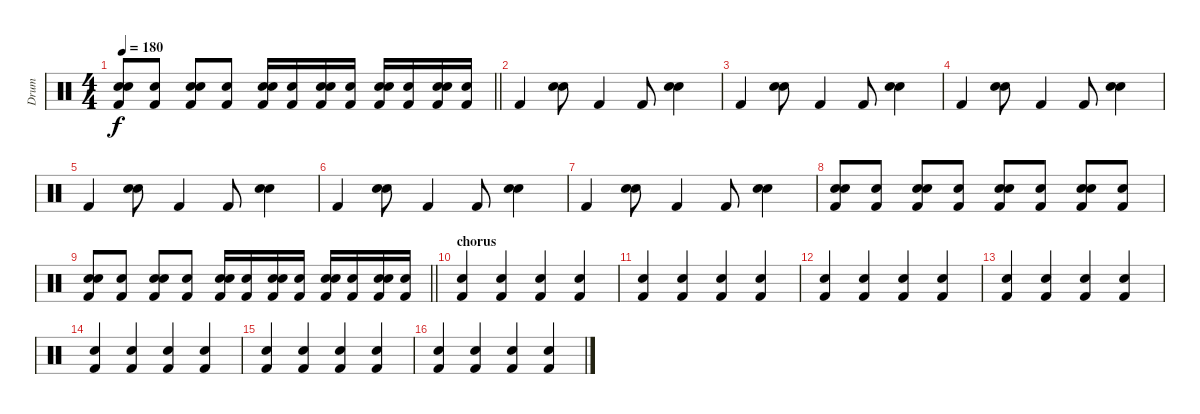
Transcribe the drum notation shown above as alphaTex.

\track ("Drum" "Drum") {instrument percussion}
\staff {score}
\articulation defaults
\ts (4 4)
\tempo 180
\clef neutral
\barLineRight lightlight
\ks c
("Kick (hit) 2" "Electric Snare (hit)" "Snare (hit) 2").8{dy f} ("Kick (hit) 2" "Electric Snare (hit)").8 ("Kick (hit) 2" "Electric Snare (hit)" "Snare (hit) 2").8 ("Kick (hit) 2" "Electric Snare (hit)").8 ("Kick (hit) 2" "Electric Snare (hit)" "Snare (hit) 2").16 ("Kick (hit) 2" "Electric Snare (hit)").16 ("Kick (hit) 2" "Electric Snare (hit)" "Snare (hit) 2").16 ("Kick (hit) 2" "Electric Snare (hit)").16 ("Kick (hit) 2" "Electric Snare (hit)" "Snare (hit) 2").16 ("Kick (hit) 2" "Electric Snare (hit)").16 ("Kick (hit) 2" "Electric Snare (hit)" "Snare (hit) 2").16 ("Kick (hit) 2" "Electric Snare (hit)").16 |
"Kick (hit) 2".4 ("Snare (hit) 2" "Electric Snare (hit)").8 "Kick (hit) 2".4 "Kick (hit) 2".8 ("Snare (hit) 2" "Electric Snare (hit)").4 |
"Kick (hit) 2".4 ("Snare (hit) 2" "Electric Snare (hit)").8 "Kick (hit) 2".4 "Kick (hit) 2".8 ("Snare (hit) 2" "Electric Snare (hit)").4 |
"Kick (hit) 2".4 ("Snare (hit) 2" "Electric Snare (hit)").8 "Kick (hit) 2".4 "Kick (hit) 2".8 ("Snare (hit) 2" "Electric Snare (hit)").4 |
"Kick (hit) 2".4 ("Snare (hit) 2" "Electric Snare (hit)").8 "Kick (hit) 2".4 "Kick (hit) 2".8 ("Snare (hit) 2" "Electric Snare (hit)").4 |
"Kick (hit) 2".4 ("Snare (hit) 2" "Electric Snare (hit)").8 "Kick (hit) 2".4 "Kick (hit) 2".8 ("Snare (hit) 2" "Electric Snare (hit)").4 |
"Kick (hit) 2".4 ("Snare (hit) 2" "Electric Snare (hit)").8 "Kick (hit) 2".4 "Kick (hit) 2".8 ("Snare (hit) 2" "Electric Snare (hit)").4 |
("Kick (hit) 2" "Electric Snare (hit)" "Snare (hit) 2").8 ("Kick (hit) 2" "Electric Snare (hit)").8 ("Kick (hit) 2" "Electric Snare (hit)" "Snare (hit) 2").8 ("Kick (hit) 2" "Electric Snare (hit)").8 ("Kick (hit) 2" "Electric Snare (hit)" "Snare (hit) 2").8 ("Kick (hit) 2" "Electric Snare (hit)").8 ("Kick (hit) 2" "Electric Snare (hit)" "Snare (hit) 2").8 ("Kick (hit) 2" "Electric Snare (hit)").8 |
\barLineRight lightlight
("Kick (hit) 2" "Electric Snare (hit)" "Snare (hit) 2").8 ("Kick (hit) 2" "Electric Snare (hit)").8 ("Kick (hit) 2" "Electric Snare (hit)" "Snare (hit) 2").8 ("Kick (hit) 2" "Electric Snare (hit)").8 ("Kick (hit) 2" "Electric Snare (hit)" "Snare (hit) 2").16 ("Kick (hit) 2" "Electric Snare (hit)").16 ("Kick (hit) 2" "Electric Snare (hit)" "Snare (hit) 2").16 ("Kick (hit) 2" "Electric Snare (hit)").16 ("Kick (hit) 2" "Electric Snare (hit)" "Snare (hit) 2").16 ("Kick (hit) 2" "Electric Snare (hit)").16 ("Kick (hit) 2" "Electric Snare (hit)" "Snare (hit) 2").16 ("Kick (hit) 2" "Electric Snare (hit)").16 |
\section ("" "chorus")
("Electric Snare (hit)" "Kick (hit) 2").4 ("Electric Snare (hit)" "Kick (hit) 2").4 ("Electric Snare (hit)" "Kick (hit) 2").4 ("Electric Snare (hit)" "Kick (hit) 2").4 |
("Electric Snare (hit)" "Kick (hit) 2").4 ("Electric Snare (hit)" "Kick (hit) 2").4 ("Electric Snare (hit)" "Kick (hit) 2").4 ("Electric Snare (hit)" "Kick (hit) 2").4 |
("Electric Snare (hit)" "Kick (hit) 2").4 ("Electric Snare (hit)" "Kick (hit) 2").4 ("Electric Snare (hit)" "Kick (hit) 2").4 ("Electric Snare (hit)" "Kick (hit) 2").4 |
("Electric Snare (hit)" "Kick (hit) 2").4 ("Electric Snare (hit)" "Kick (hit) 2").4 ("Electric Snare (hit)" "Kick (hit) 2").4 ("Electric Snare (hit)" "Kick (hit) 2").4 |
("Electric Snare (hit)" "Kick (hit) 2").4 ("Electric Snare (hit)" "Kick (hit) 2").4 ("Electric Snare (hit)" "Kick (hit) 2").4 ("Electric Snare (hit)" "Kick (hit) 2").4 |
("Electric Snare (hit)" "Kick (hit) 2").4 ("Electric Snare (hit)" "Kick (hit) 2").4 ("Electric Snare (hit)" "Kick (hit) 2").4 ("Electric Snare (hit)" "Kick (hit) 2").4 |
("Electric Snare (hit)" "Kick (hit) 2").4 ("Electric Snare (hit)" "Kick (hit) 2").4 ("Electric Snare (hit)" "Kick (hit) 2").4 ("Electric Snare (hit)" "Kick (hit) 2").4
